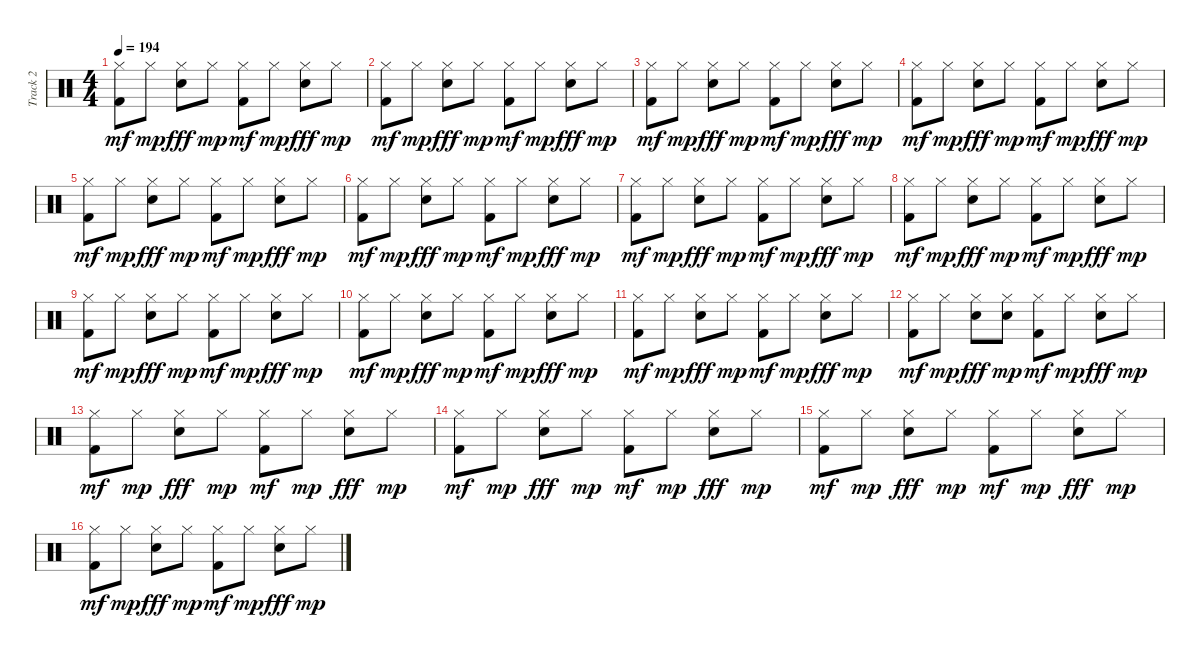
\track ("Track 2" "Track 2") {instrument percussion}
\staff {score}
\articulation defaults
\ts (4 4)
\tempo 194
\clef neutral
\ks c
("Hi-Hat (closed)" "Kick (hit) 2").8{dy mf} "Hi-Hat (closed)".8{dy mp} ("Hi-Hat (closed)" "Snare (hit)").8{dy fff} "Hi-Hat (closed)".8{dy mp} ("Hi-Hat (closed)" "Kick (hit) 2").8{dy mf} "Hi-Hat (closed)".8{dy mp} ("Hi-Hat (closed)" "Snare (hit)").8{dy fff} "Hi-Hat (closed)".8{dy mp} |
("Hi-Hat (closed)" "Kick (hit) 2").8{dy mf} "Hi-Hat (closed)".8{dy mp} ("Hi-Hat (closed)" "Snare (hit)").8{dy fff} "Hi-Hat (closed)".8{dy mp} ("Hi-Hat (closed)" "Kick (hit) 2").8{dy mf} "Hi-Hat (closed)".8{dy mp} ("Hi-Hat (closed)" "Snare (hit)").8{dy fff} "Hi-Hat (closed)".8{dy mp} |
("Hi-Hat (closed)" "Kick (hit) 2").8{dy mf} "Hi-Hat (closed)".8{dy mp} ("Hi-Hat (closed)" "Snare (hit)").8{dy fff} "Hi-Hat (closed)".8{dy mp} ("Hi-Hat (closed)" "Kick (hit) 2").8{dy mf} "Hi-Hat (closed)".8{dy mp} ("Hi-Hat (closed)" "Snare (hit)").8{dy fff} "Hi-Hat (closed)".8{dy mp} |
("Hi-Hat (closed)" "Kick (hit) 2").8{dy mf} "Hi-Hat (closed)".8{dy mp} ("Hi-Hat (closed)" "Snare (hit)").8{dy fff} "Hi-Hat (closed)".8{dy mp} ("Hi-Hat (closed)" "Kick (hit) 2").8{dy mf} "Hi-Hat (closed)".8{dy mp} ("Hi-Hat (closed)" "Snare (hit)").8{dy fff} "Hi-Hat (closed)".8{dy mp} |
("Hi-Hat (closed)" "Kick (hit) 2").8{dy mf} "Hi-Hat (closed)".8{dy mp} ("Hi-Hat (closed)" "Snare (hit)").8{dy fff} "Hi-Hat (closed)".8{dy mp} ("Hi-Hat (closed)" "Kick (hit) 2").8{dy mf} "Hi-Hat (closed)".8{dy mp} ("Hi-Hat (closed)" "Snare (hit)").8{dy fff} "Hi-Hat (closed)".8{dy mp} |
("Hi-Hat (closed)" "Kick (hit) 2").8{dy mf} "Hi-Hat (closed)".8{dy mp} ("Hi-Hat (closed)" "Snare (hit)").8{dy fff} "Hi-Hat (closed)".8{dy mp} ("Hi-Hat (closed)" "Kick (hit) 2").8{dy mf} "Hi-Hat (closed)".8{dy mp} ("Hi-Hat (closed)" "Snare (hit)").8{dy fff} "Hi-Hat (closed)".8{dy mp} |
("Hi-Hat (closed)" "Kick (hit) 2").8{dy mf} "Hi-Hat (closed)".8{dy mp} ("Hi-Hat (closed)" "Snare (hit)").8{dy fff} "Hi-Hat (closed)".8{dy mp} ("Hi-Hat (closed)" "Kick (hit) 2").8{dy mf} "Hi-Hat (closed)".8{dy mp} ("Hi-Hat (closed)" "Snare (hit)").8{dy fff} "Hi-Hat (closed)".8{dy mp} |
("Hi-Hat (closed)" "Kick (hit) 2").8{dy mf} "Hi-Hat (closed)".8{dy mp} ("Hi-Hat (closed)" "Snare (hit)").8{dy fff} "Hi-Hat (closed)".8{dy mp} ("Hi-Hat (closed)" "Kick (hit) 2").8{dy mf} "Hi-Hat (closed)".8{dy mp} ("Hi-Hat (closed)" "Snare (hit)").8{dy fff} "Hi-Hat (closed)".8{dy mp} |
("Hi-Hat (closed)" "Kick (hit) 2").8{dy mf} "Hi-Hat (closed)".8{dy mp} ("Hi-Hat (closed)" "Snare (hit)").8{dy fff} "Hi-Hat (closed)".8{dy mp} ("Hi-Hat (closed)" "Kick (hit) 2").8{dy mf} "Hi-Hat (closed)".8{dy mp} ("Hi-Hat (closed)" "Snare (hit)").8{dy fff} "Hi-Hat (closed)".8{dy mp} |
("Hi-Hat (closed)" "Kick (hit) 2").8{dy mf} "Hi-Hat (closed)".8{dy mp} ("Hi-Hat (closed)" "Snare (hit)").8{dy fff} "Hi-Hat (closed)".8{dy mp} ("Hi-Hat (closed)" "Kick (hit) 2").8{dy mf} "Hi-Hat (closed)".8{dy mp} ("Hi-Hat (closed)" "Snare (hit)").8{dy fff} "Hi-Hat (closed)".8{dy mp} |
("Hi-Hat (closed)" "Kick (hit) 2").8{dy mf} "Hi-Hat (closed)".8{dy mp} ("Hi-Hat (closed)" "Snare (hit)").8{dy fff} "Hi-Hat (closed)".8{dy mp} ("Hi-Hat (closed)" "Kick (hit) 2").8{dy mf} "Hi-Hat (closed)".8{dy mp} ("Hi-Hat (closed)" "Snare (hit)").8{dy fff} "Hi-Hat (closed)".8{dy mp} |
("Hi-Hat (closed)" "Kick (hit) 2").8{dy mf} "Hi-Hat (closed)".8{dy mp} ("Hi-Hat (closed)" "Snare (hit)").8{dy fff} ("Hi-Hat (closed)" "Snare (hit)").8{dy mp} ("Hi-Hat (closed)" "Kick (hit) 2").8{dy mf} "Hi-Hat (closed)".8{dy mp} ("Hi-Hat (closed)" "Snare (hit)").8{dy fff} "Hi-Hat (closed)".8{dy mp} |
("Hi-Hat (closed)" "Kick (hit) 2").8{dy mf} "Hi-Hat (closed)".8{dy mp} ("Hi-Hat (closed)" "Snare (hit)").8{dy fff} "Hi-Hat (closed)".8{dy mp} ("Hi-Hat (closed)" "Kick (hit) 2").8{dy mf} "Hi-Hat (closed)".8{dy mp} ("Hi-Hat (closed)" "Snare (hit)").8{dy fff} "Hi-Hat (closed)".8{dy mp} |
("Hi-Hat (closed)" "Kick (hit) 2").8{dy mf} "Hi-Hat (closed)".8{dy mp} ("Hi-Hat (closed)" "Snare (hit)").8{dy fff} "Hi-Hat (closed)".8{dy mp} ("Hi-Hat (closed)" "Kick (hit) 2").8{dy mf} "Hi-Hat (closed)".8{dy mp} ("Hi-Hat (closed)" "Snare (hit)").8{dy fff} "Hi-Hat (closed)".8{dy mp} |
("Hi-Hat (closed)" "Kick (hit) 2").8{dy mf} "Hi-Hat (closed)".8{dy mp} ("Hi-Hat (closed)" "Snare (hit)").8{dy fff} "Hi-Hat (closed)".8{dy mp} ("Hi-Hat (closed)" "Kick (hit) 2").8{dy mf} "Hi-Hat (closed)".8{dy mp} ("Hi-Hat (closed)" "Snare (hit)").8{dy fff} "Hi-Hat (closed)".8{dy mp} |
("Hi-Hat (closed)" "Kick (hit) 2").8{dy mf} "Hi-Hat (closed)".8{dy mp} ("Hi-Hat (closed)" "Snare (hit)").8{dy fff} "Hi-Hat (closed)".8{dy mp} ("Hi-Hat (closed)" "Kick (hit) 2").8{dy mf} "Hi-Hat (closed)".8{dy mp} ("Hi-Hat (closed)" "Snare (hit)").8{dy fff} "Hi-Hat (closed)".8{dy mp}
